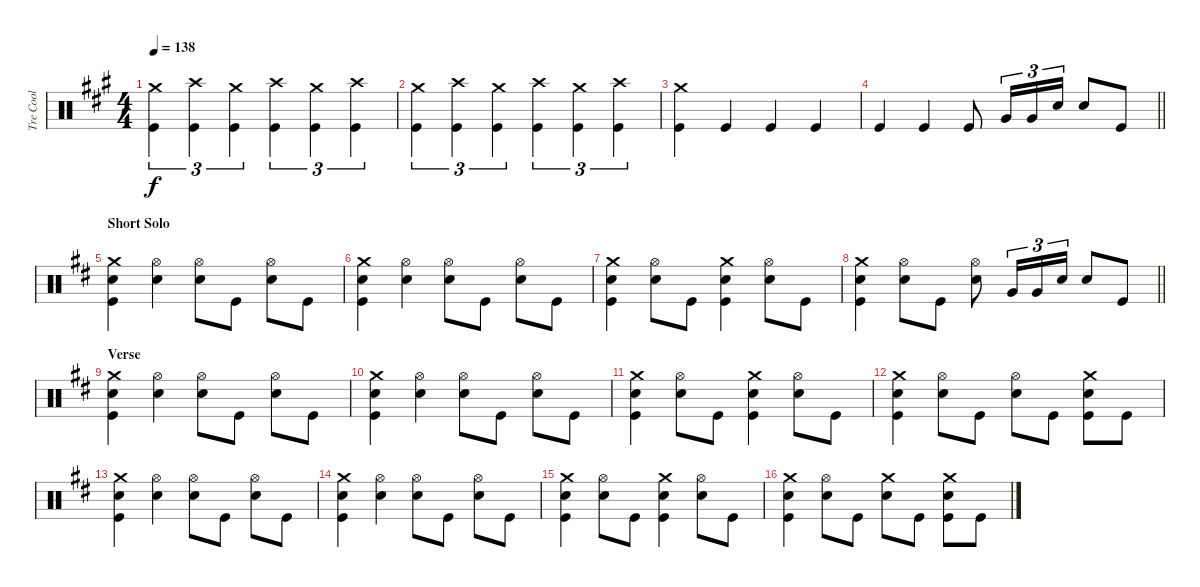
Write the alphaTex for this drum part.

\track ("Tre Cool" "Tre Cool") {instrument percussion}
\staff {score}
\articulation defaults
\ts (4 4)
\tempo 138
\clef neutral
\ks a
("Crash medium (hit)" "Kick (hit)").4{tu (3 2) dy f} ("Crash high (hit)" "Kick (hit)").4{tu (3 2)} ("Crash medium (hit)" "Kick (hit)").4{tu (3 2)} ("Crash high (hit)" "Kick (hit)").4{tu (3 2)} ("Crash medium (hit)" "Kick (hit)").4{tu (3 2)} ("Crash high (hit)" "Kick (hit)").4{tu (3 2)} |
("Crash medium (hit)" "Kick (hit)").4{tu (3 2)} ("Crash high (hit)" "Kick (hit)").4{tu (3 2)} ("Crash medium (hit)" "Kick (hit)").4{tu (3 2)} ("Crash high (hit)" "Kick (hit)").4{tu (3 2)} ("Crash medium (hit)" "Kick (hit)").4{tu (3 2)} ("Crash high (hit)" "Kick (hit)").4{tu (3 2)} |
("Crash medium (hit)" "Kick (hit)").4 "Kick (hit)".4 "Kick (hit)".4 "Kick (hit)".4 |
\barLineRight lightlight "Kick (hit)".4 "Kick (hit)".4 "Kick (hit)".8 "Very Low Tom (hit)".16{tu (3 2)} "Very Low Tom (hit)".16{tu (3 2)} "Electric Snare (hit)".16{tu (3 2)} "Electric Snare (hit)".8 "Kick (hit)".8
|
\section ("" "Short Solo")
\ks d
("Crash medium (hit)" "Electric Snare (hit)" "Kick (hit)").4 ("Hi-Hat (open)" "Electric Snare (hit)").4 ("Hi-Hat (open)" "Electric Snare (hit)").8 "Kick (hit)".8 ("Hi-Hat (open)" "Electric Snare (hit)").8 "Kick (hit)".8 |
("Crash medium (hit)" "Electric Snare (hit)" "Kick (hit)").4 ("Hi-Hat (open)" "Electric Snare (hit)").4 ("Hi-Hat (open)" "Electric Snare (hit)").8 "Kick (hit)".8 ("Hi-Hat (open)" "Electric Snare (hit)").8 "Kick (hit)".8 |
("Crash medium (hit)" "Electric Snare (hit)" "Kick (hit)").4 ("Hi-Hat (open)" "Electric Snare (hit)").8 "Kick (hit)".8 ("Crash medium (hit)" "Electric Snare (hit)" "Kick (hit)").4 ("Hi-Hat (open)" "Electric Snare (hit)").8 "Kick (hit)".8 |
\barLineRight lightlight
("Crash medium (hit)" "Electric Snare (hit)" "Kick (hit)").4 ("Hi-Hat (open)" "Electric Snare (hit)").8 "Kick (hit)".8 ("Hi-Hat (open)" "Electric Snare (hit)").8 "Very Low Tom (hit)".16{tu (3 2)} "Very Low Tom (hit)".16{tu (3 2)} "Electric Snare (hit)".16{tu (3 2)} "Electric Snare (hit)".8 "Kick (hit)".8 |
\section ("" "Verse")
("Crash medium (hit)" "Electric Snare (hit)" "Kick (hit)").4 ("Hi-Hat (open)" "Electric Snare (hit)").4 ("Hi-Hat (open)" "Electric Snare (hit)").8 "Kick (hit)".8 ("Hi-Hat (open)" "Electric Snare (hit)").8 "Kick (hit)".8 |
("Crash medium (hit)" "Electric Snare (hit)" "Kick (hit)").4 ("Hi-Hat (open)" "Electric Snare (hit)").4 ("Hi-Hat (open)" "Electric Snare (hit)").8 "Kick (hit)".8 ("Hi-Hat (open)" "Electric Snare (hit)").8 "Kick (hit)".8 |
("Crash medium (hit)" "Electric Snare (hit)" "Kick (hit)").4 ("Hi-Hat (open)" "Electric Snare (hit)").8 "Kick (hit)".8 ("Crash medium (hit)" "Electric Snare (hit)" "Kick (hit)").4 ("Hi-Hat (open)" "Electric Snare (hit)").8 "Kick (hit)".8 |
("Crash medium (hit)" "Electric Snare (hit)" "Kick (hit)").4 ("Hi-Hat (open)" "Electric Snare (hit)").8 "Kick (hit)".8 ("Hi-Hat (open)" "Electric Snare (hit)").8 "Kick (hit)".8 ("Crash medium (hit)" "Electric Snare (hit)" "Kick (hit)").8 "Kick (hit)".8 |
("Crash medium (hit)" "Electric Snare (hit)" "Kick (hit)").4 ("Hi-Hat (open)" "Electric Snare (hit)").4 ("Hi-Hat (open)" "Electric Snare (hit)").8 "Kick (hit)".8 ("Hi-Hat (open)" "Electric Snare (hit)").8 "Kick (hit)".8 |
("Crash medium (hit)" "Electric Snare (hit)" "Kick (hit)").4 ("Hi-Hat (open)" "Electric Snare (hit)").4 ("Hi-Hat (open)" "Electric Snare (hit)").8 "Kick (hit)".8 ("Hi-Hat (open)" "Electric Snare (hit)").8 "Kick (hit)".8 |
("Crash medium (hit)" "Electric Snare (hit)" "Kick (hit)").4 ("Hi-Hat (open)" "Electric Snare (hit)").8 "Kick (hit)".8 ("Crash medium (hit)" "Electric Snare (hit)" "Kick (hit)").4 ("Hi-Hat (open)" "Electric Snare (hit)").8 "Kick (hit)".8 |
("Crash medium (hit)" "Electric Snare (hit)" "Kick (hit)").4 ("Hi-Hat (open)" "Electric Snare (hit)").8 "Kick (hit)".8 ("Crash medium (hit)" "Electric Snare (hit)").8 "Kick (hit)".8 ("Crash medium (hit)" "Electric Snare (hit)" "Kick (hit)").8 "Kick (hit)".8
